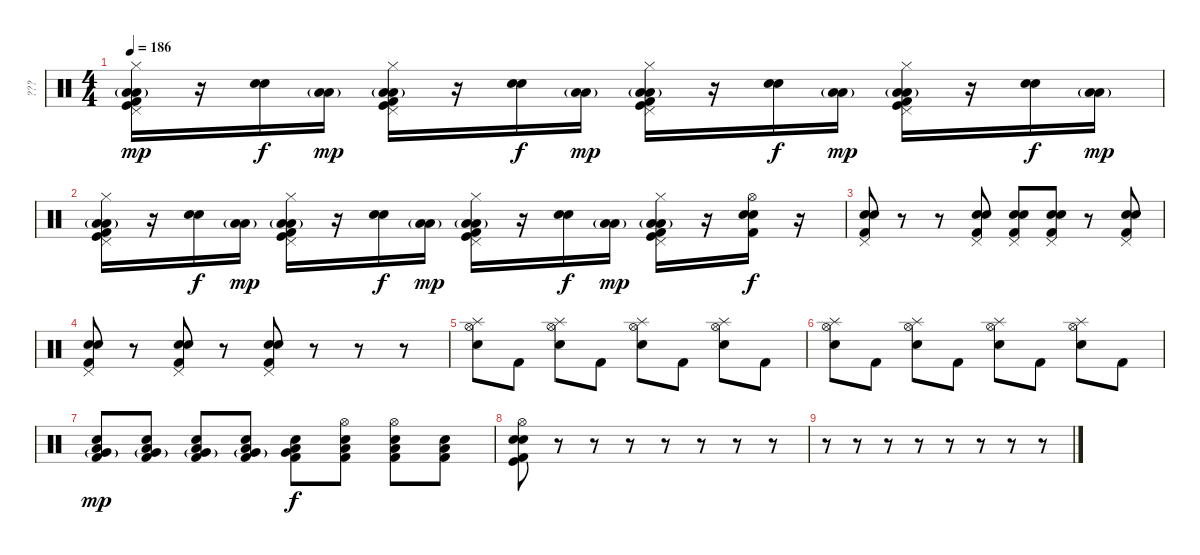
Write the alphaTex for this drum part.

\track ("???" "???") {instrument percussion}
\staff {score}
\articulation defaults
\ts (4 4)
\tempo 186
\clef neutral
\ks c
("Hi-Hat (closed)" "Pedal Hi-Hat (hit)" "Low Floor Tom (hit)" "Low Floor Tom (hit)"{g} "Kick (hit)" "Kick (hit) 2").16{dy mp} r.16 ("Electric Snare (hit)" "Snare (hit) 2").16{dy f} ("Low Floor Tom (hit)" "Low Floor Tom (hit)"{g}).16{dy mp} ("Hi-Hat (closed)" "Pedal Hi-Hat (hit)" "Low Floor Tom (hit)" "Low Floor Tom (hit)"{g} "Kick (hit)" "Kick (hit) 2").16 r.16 ("Electric Snare (hit)" "Snare (hit) 2").16{dy f} ("Low Floor Tom (hit)" "Low Floor Tom (hit)"{g}).16{dy mp} ("Hi-Hat (closed)" "Pedal Hi-Hat (hit)" "Low Floor Tom (hit)" "Low Floor Tom (hit)"{g} "Kick (hit)" "Kick (hit) 2").16 r.16 ("Electric Snare (hit)" "Snare (hit) 2").16{dy f} ("Low Floor Tom (hit)" "Low Floor Tom (hit)"{g}).16{dy mp} ("Hi-Hat (closed)" "Pedal Hi-Hat (hit)" "Low Floor Tom (hit)" "Low Floor Tom (hit)"{g} "Kick (hit)" "Kick (hit) 2").16 r.16 ("Electric Snare (hit)" "Snare (hit) 2").16{dy f} ("Low Floor Tom (hit)" "Low Floor Tom (hit)"{g}).16{dy mp} |
("Hi-Hat (closed)" "Pedal Hi-Hat (hit)" "Low Floor Tom (hit)" "Low Floor Tom (hit)"{g} "Kick (hit)" "Kick (hit) 2").16 r.16 ("Electric Snare (hit)" "Snare (hit) 2").16{dy f} ("Low Floor Tom (hit)" "Low Floor Tom (hit)"{g}).16{dy mp} ("Hi-Hat (closed)" "Pedal Hi-Hat (hit)" "Low Floor Tom (hit)" "Low Floor Tom (hit)"{g} "Kick (hit)" "Kick (hit) 2").16 r.16 ("Electric Snare (hit)" "Snare (hit) 2").16{dy f} ("Low Floor Tom (hit)" "Low Floor Tom (hit)"{g}).16{dy mp} ("Hi-Hat (closed)" "Pedal Hi-Hat (hit)" "Low Floor Tom (hit)" "Low Floor Tom (hit)"{g} "Kick (hit)" "Kick (hit) 2").16 r.16 ("Electric Snare (hit)" "Snare (hit) 2").16{dy f} ("Low Floor Tom (hit)" "Low Floor Tom (hit)"{g}).16{dy mp} ("Hi-Hat (closed)" "Pedal Hi-Hat (hit)" "Low Floor Tom (hit)" "Low Floor Tom (hit)"{g} "Kick (hit)" "Kick (hit) 2").16 r.16 ("Hi-Hat (open)" "Electric Snare (hit)" "Snare (hit) 2" "Kick (hit) 2").16{dy f} r.16 |
("Pedal Hi-Hat (hit)" "Electric Snare (hit)" "Snare (hit) 2" "Kick (hit) 2").8 r.8 r.8 ("Pedal Hi-Hat (hit)" "Electric Snare (hit)" "Snare (hit) 2" "Kick (hit) 2").8 ("Pedal Hi-Hat (hit)" "Electric Snare (hit)" "Snare (hit) 2" "Kick (hit) 2").8 ("Pedal Hi-Hat (hit)" "Electric Snare (hit)" "Snare (hit) 2" "Kick (hit) 2").8 r.8 ("Pedal Hi-Hat (hit)" "Electric Snare (hit)" "Snare (hit) 2" "Kick (hit) 2").8 |
("Pedal Hi-Hat (hit)" "Electric Snare (hit)" "Snare (hit) 2" "Kick (hit) 2").8 r.8 ("Pedal Hi-Hat (hit)" "Electric Snare (hit)" "Snare (hit) 2" "Kick (hit) 2").8 r.8 ("Pedal Hi-Hat (hit)" "Electric Snare (hit)" "Snare (hit) 2" "Kick (hit) 2").8 r.8 r.8 r.8 |
("Hi-Hat (open)" "Splash (hit)" "Snare (hit) 2").8{volume 9} "Kick (hit) 2".8 ("Hi-Hat (open)" "Splash (hit)" "Snare (hit) 2").8 "Kick (hit) 2".8 ("Hi-Hat (open)" "Splash (hit)" "Snare (hit) 2").8 "Kick (hit) 2".8 ("Hi-Hat (open)" "Splash (hit)" "Snare (hit) 2").8 "Kick (hit) 2".8 |
("Hi-Hat (open)" "Splash (hit)" "Snare (hit) 2").8{volume 9} "Kick (hit) 2".8 ("Hi-Hat (open)" "Splash (hit)" "Snare (hit) 2").8 "Kick (hit) 2".8 ("Hi-Hat (open)" "Splash (hit)" "Snare (hit) 2").8 "Kick (hit) 2".8 ("Hi-Hat (open)" "Splash (hit)" "Snare (hit) 2").8 "Kick (hit) 2".8 |
("Snare (hit) 2" "Very Low Tom (hit)"{g} "Low Floor Tom (hit)" "Kick (hit) 2").8{dy mp} ("Snare (hit) 2" "Very Low Tom (hit)"{g} "Low Floor Tom (hit)" "Kick (hit) 2").8 ("Snare (hit) 2" "Very Low Tom (hit)"{g} "Low Floor Tom (hit)" "Kick (hit) 2").8 ("Snare (hit) 2" "Very Low Tom (hit)"{g} "Low Floor Tom (hit)" "Kick (hit) 2").8 ("Snare (hit) 2" "Very Low Tom (hit)" "Low Floor Tom (hit)" "Kick (hit) 2").8{dy f} ("Snare (hit) 2" "Hi-Hat (open)" "Low Floor Tom (hit)" "Kick (hit) 2").8 ("Snare (hit) 2" "Hi-Hat (open)" "Low Floor Tom (hit)" "Kick (hit) 2").8 ("Snare (hit) 2" "Low Floor Tom (hit)" "Kick (hit) 2").8 |
("Hi-Hat (open)" "Kick (hit)" "Snare (hit) 2" "Electric Snare (hit)" "Kick (hit) 2").8 r.8 r.8 r.8 r.8 r.8 r.8 r.8 |
r.8 r.8 r.8 r.8 r.8 r.8 r.8 r.8
